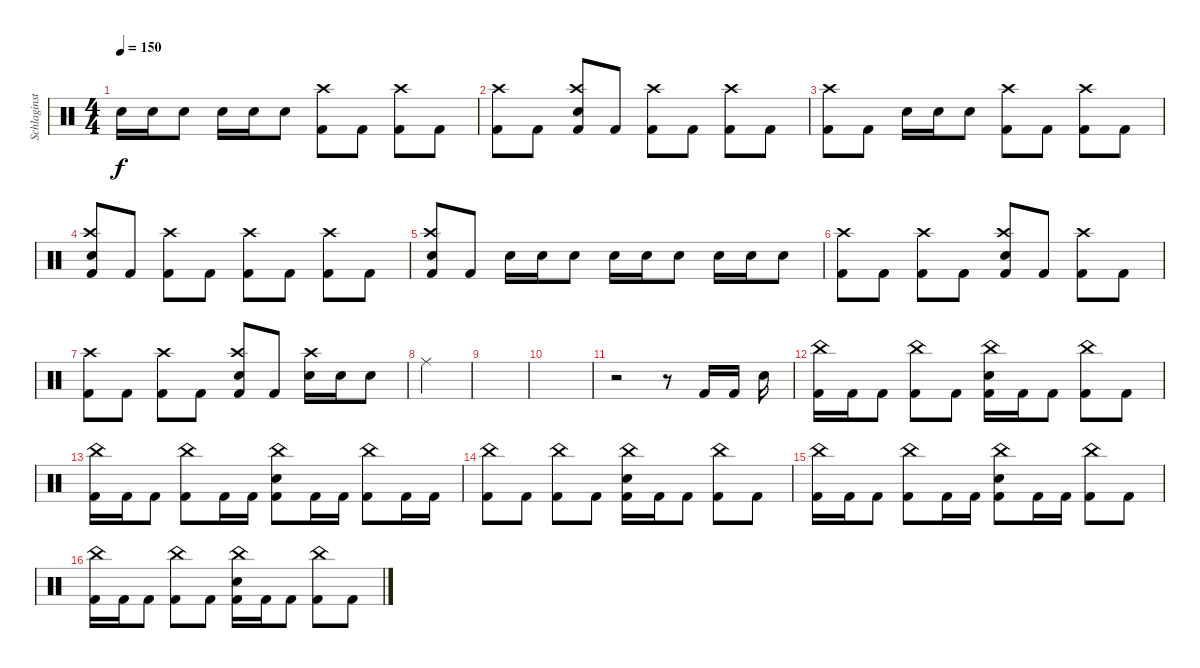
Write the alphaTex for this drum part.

\track ("Schlaginstrumente - Auswahl" "Schlaginst") {instrument percussion}
\staff {score}
\articulation defaults
\ts (4 4)
\tempo 150
\clef neutral
\ks c "Snare (hit) 2".16{dy f} "Snare (hit) 2".16 "Snare (hit) 2".8 "Snare (hit) 2".16 "Snare (hit) 2".16 "Snare (hit) 2".8
("Crash high (hit)" "Kick (hit) 2").8 "Kick (hit) 2".8 ("Crash high (hit)" "Kick (hit) 2").8 "Kick (hit) 2".8 |
("Crash high (hit)" "Kick (hit) 2").8 "Kick (hit) 2".8 ("Crash high (hit)" "Snare (hit) 2" "Kick (hit) 2").8 "Kick (hit) 2".8 ("Crash high (hit)" "Kick (hit) 2").8 "Kick (hit) 2".8 ("Crash high (hit)" "Kick (hit) 2").8 "Kick (hit) 2".8 |
("Crash high (hit)" "Kick (hit) 2").8 "Kick (hit) 2".8 "Snare (hit) 2".16 "Snare (hit) 2".16 "Snare (hit) 2".8 ("Crash high (hit)" "Kick (hit) 2").8 "Kick (hit) 2".8 ("Crash high (hit)" "Kick (hit) 2").8 "Kick (hit) 2".8 |
("Crash high (hit)" "Snare (hit) 2" "Kick (hit) 2").8 "Kick (hit) 2".8 ("Crash high (hit)" "Kick (hit) 2").8 "Kick (hit) 2".8 ("Crash high (hit)" "Kick (hit) 2").8 "Kick (hit) 2".8 ("Crash high (hit)" "Kick (hit) 2").8 "Kick (hit) 2".8 |
("Crash high (hit)" "Snare (hit) 2" "Kick (hit) 2").8 "Kick (hit) 2".8 "Snare (hit) 2".16 "Snare (hit) 2".16 "Snare (hit) 2".8 "Snare (hit) 2".16 "Snare (hit) 2".16 "Snare (hit) 2".8 "Snare (hit) 2".16 "Snare (hit) 2".16 "Snare (hit) 2".8 |
("Crash high (hit)" "Kick (hit) 2").8 "Kick (hit) 2".8 ("Crash high (hit)" "Kick (hit) 2").8 "Kick (hit) 2".8 ("Crash high (hit)" "Snare (hit) 2" "Kick (hit) 2").8 "Kick (hit) 2".8 ("Crash high (hit)" "Kick (hit) 2").8 "Kick (hit) 2".8 |
("Crash high (hit)" "Kick (hit) 2").8 "Kick (hit) 2".8 ("Crash high (hit)" "Kick (hit) 2").8 "Kick (hit) 2".8 ("Crash high (hit)" "Snare (hit) 2" "Kick (hit) 2").8 "Kick (hit) 2".8 ("Crash high (hit)" "Snare (hit) 2").16 "Snare (hit) 2".16 "Snare (hit) 2".8 |
"Ride (middle)".4 |
|
|
r.2 r.8 "Kick (hit) 2".16 "Kick (hit) 2".16 "Snare (hit) 2".16 |
("China (hit)" "Kick (hit) 2").16 "Kick (hit) 2".16 "Kick (hit) 2".8 ("China (hit)" "Kick (hit) 2").8 "Kick (hit) 2".8 ("China (hit)" "Snare (hit) 2" "Kick (hit) 2").16 "Kick (hit) 2".16 "Kick (hit) 2".8 ("China (hit)" "Kick (hit) 2").8 "Kick (hit) 2".8 |
("China (hit)" "Kick (hit) 2").16 "Kick (hit) 2".16 "Kick (hit) 2".8 ("China (hit)" "Kick (hit) 2").8 "Kick (hit) 2".16 "Kick (hit) 2".16 ("China (hit)" "Snare (hit) 2" "Kick (hit) 2").8 "Kick (hit) 2".16 "Kick (hit) 2".16 ("China (hit)" "Kick (hit) 2").8 "Kick (hit) 2".16 "Kick (hit) 2".16 |
("China (hit)" "Kick (hit) 2").8 "Kick (hit) 2".8 ("China (hit)" "Kick (hit) 2").8 "Kick (hit) 2".8 ("China (hit)" "Snare (hit) 2" "Kick (hit) 2").16 "Kick (hit) 2".16 "Kick (hit) 2".8 ("China (hit)" "Kick (hit) 2").8 "Kick (hit) 2".8 |
("China (hit)" "Kick (hit) 2").16 "Kick (hit) 2".16 "Kick (hit) 2".8 ("China (hit)" "Kick (hit) 2").8 "Kick (hit) 2".16 "Kick (hit) 2".16 ("China (hit)" "Snare (hit) 2" "Kick (hit) 2").8 "Kick (hit) 2".16 "Kick (hit) 2".16 ("China (hit)" "Kick (hit) 2").8 "Kick (hit) 2".8 |
("China (hit)" "Kick (hit) 2").16 "Kick (hit) 2".16 "Kick (hit) 2".8 ("China (hit)" "Kick (hit) 2").8 "Kick (hit) 2".8 ("China (hit)" "Snare (hit) 2" "Kick (hit) 2").16 "Kick (hit) 2".16 "Kick (hit) 2".8 ("China (hit)" "Kick (hit) 2").8 "Kick (hit) 2".8
